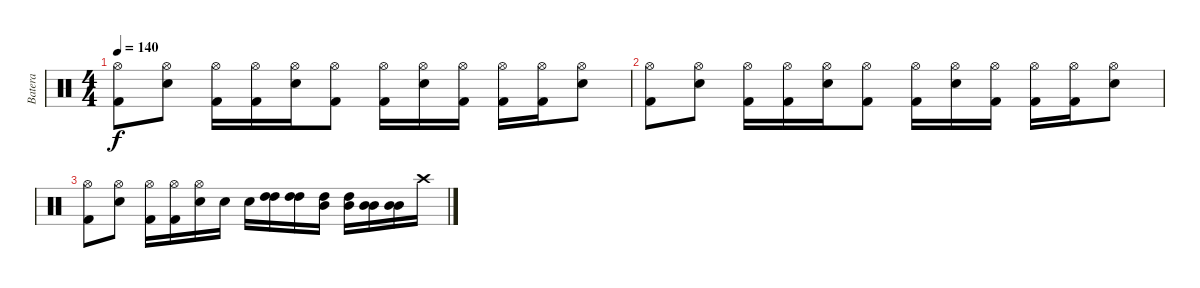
\track ("Batera" "Batera") {instrument percussion}
\staff {score}
\articulation defaults
\ts (4 4)
\tempo 140
\clef neutral
\ks c
("Kick (hit) 2" "Hi-Hat (open)").8{dy f} ("Electric Snare (hit)" "Hi-Hat (open)").8 ("Kick (hit) 2" "Hi-Hat (open)").16 ("Kick (hit) 2" "Hi-Hat (open)").16 ("Electric Snare (hit)" "Hi-Hat (open)").16 ("Kick (hit) 2" "Hi-Hat (open)").8 ("Kick (hit) 2" "Hi-Hat (open)").16 ("Electric Snare (hit)" "Hi-Hat (open)").16 ("Kick (hit) 2" "Hi-Hat (open)").16 ("Kick (hit) 2" "Hi-Hat (open)").16 ("Kick (hit) 2" "Hi-Hat (open)").16 ("Electric Snare (hit)" "Hi-Hat (open)").8 |
("Kick (hit) 2" "Hi-Hat (open)").8 ("Electric Snare (hit)" "Hi-Hat (open)").8 ("Kick (hit) 2" "Hi-Hat (open)").16 ("Kick (hit) 2" "Hi-Hat (open)").16 ("Electric Snare (hit)" "Hi-Hat (open)").16 ("Kick (hit) 2" "Hi-Hat (open)").8 ("Kick (hit) 2" "Hi-Hat (open)").16 ("Electric Snare (hit)" "Hi-Hat (open)").16 ("Kick (hit) 2" "Hi-Hat (open)").16 ("Kick (hit) 2" "Hi-Hat (open)").16 ("Kick (hit) 2" "Hi-Hat (open)").16 ("Electric Snare (hit)" "Hi-Hat (open)").8 |
("Kick (hit) 2" "Hi-Hat (open)").8 ("Electric Snare (hit)" "Hi-Hat (open)").8 ("Kick (hit) 2" "Hi-Hat (open)").16 ("Kick (hit) 2" "Hi-Hat (open)").16 ("Electric Snare (hit)" "Hi-Hat (open)").16 "Electric Snare (hit)".16 "Electric Snare (hit)".16 ("High Tom (hit)" "High Tom (hit)").16 ("High Tom (hit)" "High Tom (hit)").16 ("Mid Tom (hit)" "High Tom (hit)").16 ("Mid Tom (hit)" "High Tom (hit)").16 ("Mid Tom (hit)" "Mid Tom (hit)").16 ("Mid Tom (hit)" "Mid Tom (hit)").16 "Crash high (hit)".16
